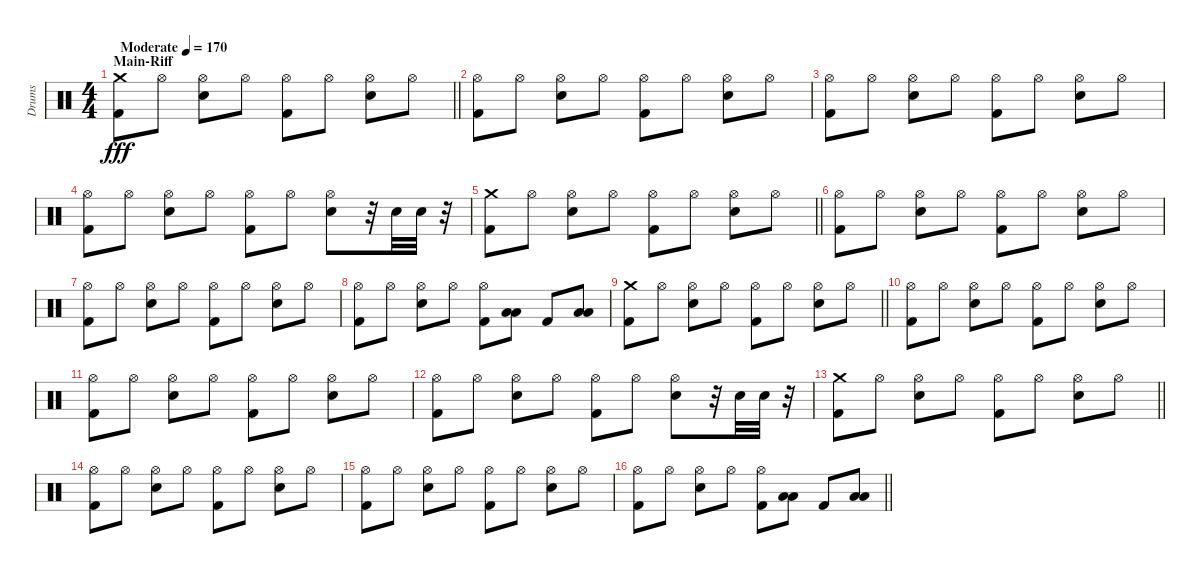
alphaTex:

\track ("Drums" "Drums") {instrument percussion}
\staff {score}
\articulation defaults
\ts (4 4)
\section ("" "Main-Riff")
\tempo (170 "Moderate")
\clef neutral
\barLineRight lightlight
\ks c
("Crash medium (hit)" "Kick (hit) 2").8{dy fff} "Hi-Hat (open)".8 ("Hi-Hat (open)" "Electric Snare (hit)").8 "Hi-Hat (open)".8 ("Hi-Hat (open)" "Kick (hit) 2").8 "Hi-Hat (open)".8 ("Hi-Hat (open)" "Electric Snare (hit)").8 "Hi-Hat (open)".8 |
("Hi-Hat (open)" "Kick (hit) 2").8 "Hi-Hat (open)".8 ("Hi-Hat (open)" "Electric Snare (hit)").8 "Hi-Hat (open)".8 ("Hi-Hat (open)" "Kick (hit) 2").8 "Hi-Hat (open)".8 ("Hi-Hat (open)" "Electric Snare (hit)").8 "Hi-Hat (open)".8 |
("Hi-Hat (open)" "Kick (hit) 2").8 "Hi-Hat (open)".8 ("Hi-Hat (open)" "Electric Snare (hit)").8 "Hi-Hat (open)".8 ("Hi-Hat (open)" "Kick (hit) 2").8 "Hi-Hat (open)".8 ("Hi-Hat (open)" "Electric Snare (hit)").8 "Hi-Hat (open)".8 |
("Hi-Hat (open)" "Kick (hit) 2").8 "Hi-Hat (open)".8 ("Hi-Hat (open)" "Electric Snare (hit)").8 "Hi-Hat (open)".8 ("Hi-Hat (open)" "Kick (hit) 2").8 "Hi-Hat (open)".8 ("Hi-Hat (open)" "Electric Snare (hit)").8 r.32 "Electric Snare (hit)".32 "Electric Snare (hit)".32 r.32 |
\barLineRight lightlight
("Crash medium (hit)" "Kick (hit) 2").8 "Hi-Hat (open)".8 ("Hi-Hat (open)" "Electric Snare (hit)").8 "Hi-Hat (open)".8 ("Hi-Hat (open)" "Kick (hit) 2").8 "Hi-Hat (open)".8 ("Hi-Hat (open)" "Electric Snare (hit)").8 "Hi-Hat (open)".8 |
("Hi-Hat (open)" "Kick (hit) 2").8 "Hi-Hat (open)".8 ("Hi-Hat (open)" "Electric Snare (hit)").8 "Hi-Hat (open)".8 ("Hi-Hat (open)" "Kick (hit) 2").8 "Hi-Hat (open)".8 ("Hi-Hat (open)" "Electric Snare (hit)").8 "Hi-Hat (open)".8 |
("Hi-Hat (open)" "Kick (hit) 2").8 "Hi-Hat (open)".8 ("Hi-Hat (open)" "Electric Snare (hit)").8 "Hi-Hat (open)".8 ("Hi-Hat (open)" "Kick (hit) 2").8 "Hi-Hat (open)".8 ("Hi-Hat (open)" "Electric Snare (hit)").8 "Hi-Hat (open)".8 |
("Hi-Hat (open)" "Kick (hit) 2").8 "Hi-Hat (open)".8 ("Hi-Hat (open)" "Electric Snare (hit)").8 "Hi-Hat (open)".8 ("Hi-Hat (open)" "Kick (hit) 2").8 ("Low Tom (hit)" "Low Floor Tom (hit)").8 "Kick (hit) 2".8 ("Low Tom (hit)" "Low Floor Tom (hit)").8 |
\barLineRight lightlight
("Crash medium (hit)" "Kick (hit) 2").8 "Hi-Hat (open)".8 ("Hi-Hat (open)" "Electric Snare (hit)").8 "Hi-Hat (open)".8 ("Hi-Hat (open)" "Kick (hit) 2").8 "Hi-Hat (open)".8 ("Hi-Hat (open)" "Electric Snare (hit)").8 "Hi-Hat (open)".8 |
("Hi-Hat (open)" "Kick (hit) 2").8 "Hi-Hat (open)".8 ("Hi-Hat (open)" "Electric Snare (hit)").8 "Hi-Hat (open)".8 ("Hi-Hat (open)" "Kick (hit) 2").8 "Hi-Hat (open)".8 ("Hi-Hat (open)" "Electric Snare (hit)").8 "Hi-Hat (open)".8 |
("Hi-Hat (open)" "Kick (hit) 2").8 "Hi-Hat (open)".8 ("Hi-Hat (open)" "Electric Snare (hit)").8 "Hi-Hat (open)".8 ("Hi-Hat (open)" "Kick (hit) 2").8 "Hi-Hat (open)".8 ("Hi-Hat (open)" "Electric Snare (hit)").8 "Hi-Hat (open)".8 |
("Hi-Hat (open)" "Kick (hit) 2").8 "Hi-Hat (open)".8 ("Hi-Hat (open)" "Electric Snare (hit)").8 "Hi-Hat (open)".8 ("Hi-Hat (open)" "Kick (hit) 2").8 "Hi-Hat (open)".8 ("Hi-Hat (open)" "Electric Snare (hit)").8 r.32 "Electric Snare (hit)".32 "Electric Snare (hit)".32 r.32 |
\barLineRight lightlight
("Crash medium (hit)" "Kick (hit) 2").8 "Hi-Hat (open)".8 ("Hi-Hat (open)" "Electric Snare (hit)").8 "Hi-Hat (open)".8 ("Hi-Hat (open)" "Kick (hit) 2").8 "Hi-Hat (open)".8 ("Hi-Hat (open)" "Electric Snare (hit)").8 "Hi-Hat (open)".8 |
("Hi-Hat (open)" "Kick (hit) 2").8 "Hi-Hat (open)".8 ("Hi-Hat (open)" "Electric Snare (hit)").8 "Hi-Hat (open)".8 ("Hi-Hat (open)" "Kick (hit) 2").8 "Hi-Hat (open)".8 ("Hi-Hat (open)" "Electric Snare (hit)").8 "Hi-Hat (open)".8 |
("Hi-Hat (open)" "Kick (hit) 2").8 "Hi-Hat (open)".8 ("Hi-Hat (open)" "Electric Snare (hit)").8 "Hi-Hat (open)".8 ("Hi-Hat (open)" "Kick (hit) 2").8 "Hi-Hat (open)".8 ("Hi-Hat (open)" "Electric Snare (hit)").8 "Hi-Hat (open)".8 |
\barLineRight lightlight
("Hi-Hat (open)" "Kick (hit) 2").8 "Hi-Hat (open)".8 ("Hi-Hat (open)" "Electric Snare (hit)").8 "Hi-Hat (open)".8 ("Hi-Hat (open)" "Kick (hit) 2").8 ("Low Tom (hit)" "Low Floor Tom (hit)").8 "Kick (hit) 2".8 ("Low Tom (hit)" "Low Floor Tom (hit)").8
